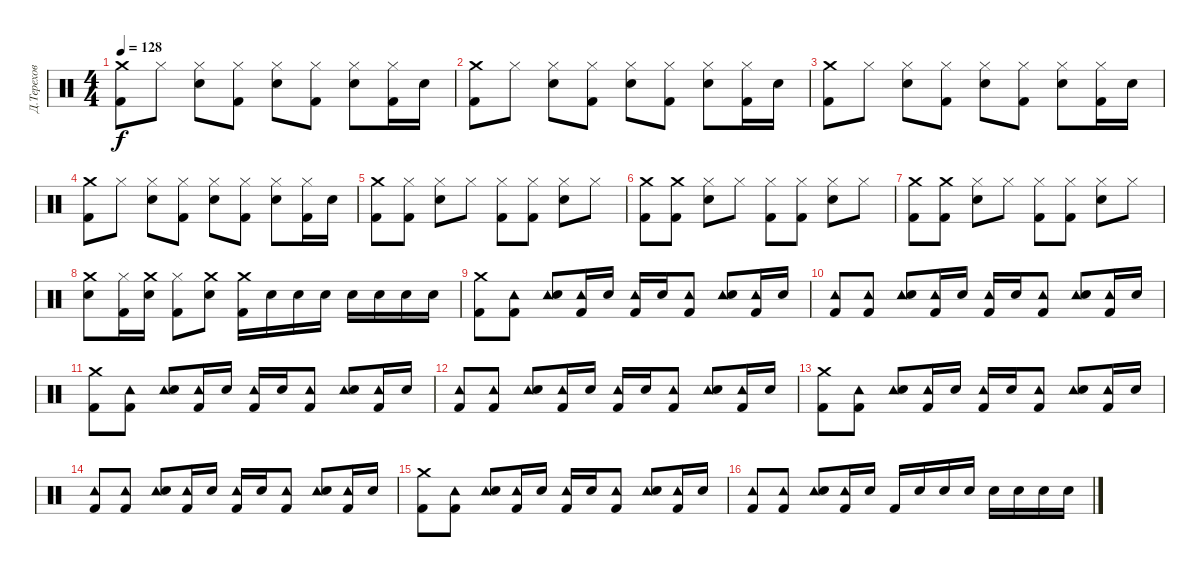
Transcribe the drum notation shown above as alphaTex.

\track ("Д.Терехов" "Д.Терехов") {instrument percussion}
\staff {score}
\articulation defaults
\ts (4 4)
\tempo 128
\clef neutral
\ks c
("Crash medium (hit)" "Kick (hit) 2").8{dy f} "Hi-Hat (closed)".8 ("Hi-Hat (closed)" "Electric Snare (hit)").8 ("Hi-Hat (closed)" "Kick (hit) 2").8 ("Hi-Hat (closed)" "Electric Snare (hit)").8 ("Hi-Hat (closed)" "Kick (hit) 2").8 ("Hi-Hat (closed)" "Electric Snare (hit)").8 ("Hi-Hat (closed)" "Kick (hit) 2").16 "Electric Snare (hit)".16 |
("Crash medium (hit)" "Kick (hit) 2").8 "Hi-Hat (closed)".8 ("Hi-Hat (closed)" "Electric Snare (hit)").8 ("Hi-Hat (closed)" "Kick (hit) 2").8 ("Hi-Hat (closed)" "Electric Snare (hit)").8 ("Hi-Hat (closed)" "Kick (hit) 2").8 ("Hi-Hat (closed)" "Electric Snare (hit)").8 ("Hi-Hat (closed)" "Kick (hit) 2").16 "Electric Snare (hit)".16 |
("Crash medium (hit)" "Kick (hit) 2").8 "Hi-Hat (closed)".8 ("Hi-Hat (closed)" "Electric Snare (hit)").8 ("Hi-Hat (closed)" "Kick (hit) 2").8 ("Hi-Hat (closed)" "Electric Snare (hit)").8 ("Hi-Hat (closed)" "Kick (hit) 2").8 ("Hi-Hat (closed)" "Electric Snare (hit)").8 ("Hi-Hat (closed)" "Kick (hit) 2").16 "Electric Snare (hit)".16 |
("Crash medium (hit)" "Kick (hit) 2").8 "Hi-Hat (closed)".8 ("Hi-Hat (closed)" "Electric Snare (hit)").8 ("Hi-Hat (closed)" "Kick (hit) 2").8 ("Hi-Hat (closed)" "Electric Snare (hit)").8 ("Hi-Hat (closed)" "Kick (hit) 2").8 ("Hi-Hat (closed)" "Electric Snare (hit)").8 ("Hi-Hat (closed)" "Kick (hit) 2").16 "Electric Snare (hit)".16 |
("Crash medium (hit)" "Kick (hit) 2").8 ("Hi-Hat (closed)" "Kick (hit) 2").8 ("Hi-Hat (closed)" "Electric Snare (hit)").8 "Hi-Hat (closed)".8 ("Hi-Hat (closed)" "Kick (hit) 2").8 ("Hi-Hat (closed)" "Kick (hit) 2").8 ("Hi-Hat (closed)" "Electric Snare (hit)").8 "Hi-Hat (closed)".8 |
("Crash medium (hit)" "Kick (hit) 2").8 ("Crash medium (hit)" "Kick (hit) 2").8 ("Hi-Hat (closed)" "Electric Snare (hit)").8 "Hi-Hat (closed)".8 ("Hi-Hat (closed)" "Kick (hit) 2").8 ("Hi-Hat (closed)" "Kick (hit) 2").8 ("Hi-Hat (closed)" "Electric Snare (hit)").8 "Hi-Hat (closed)".8 |
("Crash medium (hit)" "Kick (hit) 2").8 ("Crash medium (hit)" "Kick (hit) 2").8 ("Hi-Hat (closed)" "Electric Snare (hit)").8 "Hi-Hat (closed)".8 ("Hi-Hat (closed)" "Kick (hit) 2").8 ("Hi-Hat (closed)" "Kick (hit) 2").8 ("Hi-Hat (closed)" "Electric Snare (hit)").8 "Hi-Hat (closed)".8 |
("Crash medium (hit)" "Electric Snare (hit)").8 ("Hi-Hat (closed)" "Kick (hit) 2").16 ("Crash medium (hit)" "Electric Snare (hit)").16 ("Hi-Hat (closed)" "Kick (hit) 2").8 ("Crash medium (hit)" "Electric Snare (hit)").8 ("Crash medium (hit)" "Kick (hit) 2").16 "Electric Snare (hit)".16 "Electric Snare (hit)".16 "Electric Snare (hit)".16 "Electric Snare (hit)".16 "Electric Snare (hit)".16 "Electric Snare (hit)".16 "Electric Snare (hit)".16 |
("Crash medium (hit)" "Kick (hit) 2").8 ("Tambourine (hit)" "Kick (hit) 2").8 ("Tambourine (hit)" "Electric Snare (hit)").8 ("Tambourine (hit)" "Kick (hit) 2").16 "Electric Snare (hit)".16 ("Tambourine (hit)" "Kick (hit) 2").16 "Electric Snare (hit)".16 ("Tambourine (hit)" "Kick (hit) 2").8 ("Tambourine (hit)" "Electric Snare (hit)").8 ("Tambourine (hit)" "Kick (hit) 2").16 "Electric Snare (hit)".16 |
("Tambourine (hit)" "Kick (hit) 2").8 ("Tambourine (hit)" "Kick (hit) 2").8 ("Tambourine (hit)" "Electric Snare (hit)").8 ("Tambourine (hit)" "Kick (hit) 2").16 "Electric Snare (hit)".16 ("Tambourine (hit)" "Kick (hit) 2").16 "Electric Snare (hit)".16 ("Tambourine (hit)" "Kick (hit) 2").8 ("Tambourine (hit)" "Electric Snare (hit)").8 ("Tambourine (hit)" "Kick (hit) 2").16 "Electric Snare (hit)".16 |
("Crash medium (hit)" "Kick (hit) 2").8 ("Tambourine (hit)" "Kick (hit) 2").8 ("Tambourine (hit)" "Electric Snare (hit)").8 ("Tambourine (hit)" "Kick (hit) 2").16 "Electric Snare (hit)".16 ("Tambourine (hit)" "Kick (hit) 2").16 "Electric Snare (hit)".16 ("Tambourine (hit)" "Kick (hit) 2").8 ("Tambourine (hit)" "Electric Snare (hit)").8 ("Tambourine (hit)" "Kick (hit) 2").16 "Electric Snare (hit)".16 |
("Tambourine (hit)" "Kick (hit) 2").8 ("Tambourine (hit)" "Kick (hit) 2").8 ("Tambourine (hit)" "Electric Snare (hit)").8 ("Tambourine (hit)" "Kick (hit) 2").16 "Electric Snare (hit)".16 ("Tambourine (hit)" "Kick (hit) 2").16 "Electric Snare (hit)".16 ("Tambourine (hit)" "Kick (hit) 2").8 ("Tambourine (hit)" "Electric Snare (hit)").8 ("Tambourine (hit)" "Kick (hit) 2").16 "Electric Snare (hit)".16 |
("Crash medium (hit)" "Kick (hit) 2").8 ("Tambourine (hit)" "Kick (hit) 2").8 ("Tambourine (hit)" "Electric Snare (hit)").8 ("Tambourine (hit)" "Kick (hit) 2").16 "Electric Snare (hit)".16 ("Tambourine (hit)" "Kick (hit) 2").16 "Electric Snare (hit)".16 ("Tambourine (hit)" "Kick (hit) 2").8 ("Tambourine (hit)" "Electric Snare (hit)").8 ("Tambourine (hit)" "Kick (hit) 2").16 "Electric Snare (hit)".16 |
("Tambourine (hit)" "Kick (hit) 2").8 ("Tambourine (hit)" "Kick (hit) 2").8 ("Tambourine (hit)" "Electric Snare (hit)").8 ("Tambourine (hit)" "Kick (hit) 2").16 "Electric Snare (hit)".16 ("Tambourine (hit)" "Kick (hit) 2").16 "Electric Snare (hit)".16 ("Tambourine (hit)" "Kick (hit) 2").8 ("Tambourine (hit)" "Electric Snare (hit)").8 ("Tambourine (hit)" "Kick (hit) 2").16 "Electric Snare (hit)".16 |
("Crash medium (hit)" "Kick (hit) 2").8 ("Tambourine (hit)" "Kick (hit) 2").8 ("Tambourine (hit)" "Electric Snare (hit)").8 ("Tambourine (hit)" "Kick (hit) 2").16 "Electric Snare (hit)".16 ("Tambourine (hit)" "Kick (hit) 2").16 "Electric Snare (hit)".16 ("Tambourine (hit)" "Kick (hit) 2").8 ("Tambourine (hit)" "Electric Snare (hit)").8 ("Tambourine (hit)" "Kick (hit) 2").16 "Electric Snare (hit)".16 |
("Tambourine (hit)" "Kick (hit) 2").8 ("Tambourine (hit)" "Kick (hit) 2").8 ("Tambourine (hit)" "Electric Snare (hit)").8 ("Tambourine (hit)" "Kick (hit) 2").16 "Electric Snare (hit)".16 "Kick (hit) 2".16 "Electric Snare (hit)".16 "Electric Snare (hit)".16 "Electric Snare (hit)".16 "Electric Snare (hit)".16 "Electric Snare (hit)".16 "Electric Snare (hit)".16 "Electric Snare (hit)".16
